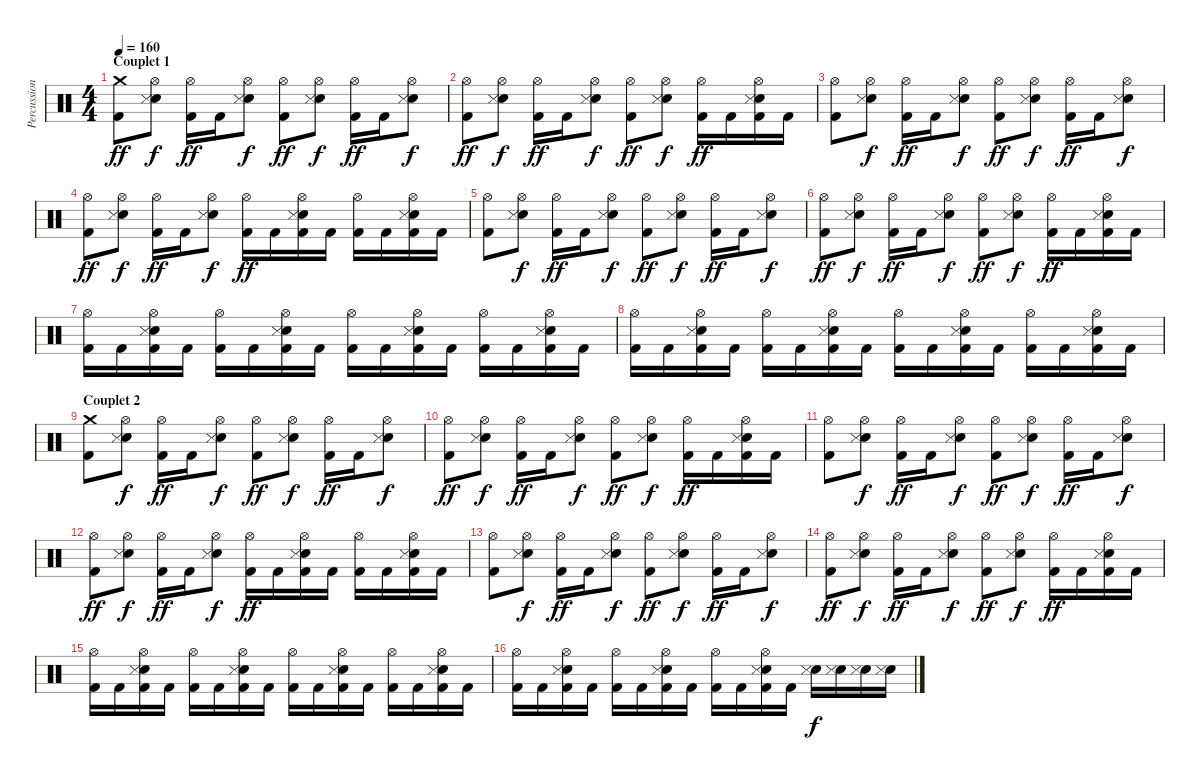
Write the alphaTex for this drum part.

\track ("Percussions" "Percussion") {instrument percussion}
\staff {score}
\articulation defaults
\ts (4 4)
\section ("" "Couplet 1")
\tempo 160
\clef neutral
\ks c
("Crash medium (hit)" "Kick (hit) 2").8{dy ff} ("Hi-Hat (open)" "Electric Snare (hit)" "Snare (side stick) 3").8{dy f} ("Hi-Hat (open)" "Kick (hit) 2").16{dy ff} "Kick (hit) 2".16 ("Hi-Hat (open)" "Electric Snare (hit)" "Snare (side stick) 3").8{dy f} ("Hi-Hat (open)" "Kick (hit) 2").8{dy ff} ("Hi-Hat (open)" "Electric Snare (hit)" "Snare (side stick) 3").8{dy f} ("Hi-Hat (open)" "Kick (hit) 2").16{dy ff} "Kick (hit) 2".16 ("Hi-Hat (open)" "Electric Snare (hit)" "Snare (side stick) 3").8{dy f} |
("Hi-Hat (open)" "Kick (hit) 2").8{dy ff} ("Hi-Hat (open)" "Electric Snare (hit)" "Snare (side stick) 3").8{dy f} ("Hi-Hat (open)" "Kick (hit) 2").16{dy ff} "Kick (hit) 2".16 ("Hi-Hat (open)" "Electric Snare (hit)" "Snare (side stick) 3").8{dy f} ("Hi-Hat (open)" "Kick (hit) 2").8{dy ff} ("Hi-Hat (open)" "Electric Snare (hit)" "Snare (side stick) 3").8{dy f} ("Hi-Hat (open)" "Kick (hit) 2").16{dy ff} "Kick (hit) 2".16 ("Hi-Hat (open)" "Electric Snare (hit)" "Snare (side stick) 3" "Kick (hit) 2").16 "Kick (hit) 2".16 |
("Hi-Hat (open)" "Kick (hit) 2").8 ("Hi-Hat (open)" "Electric Snare (hit)" "Snare (side stick) 3").8{dy f} ("Hi-Hat (open)" "Kick (hit) 2").16{dy ff} "Kick (hit) 2".16 ("Hi-Hat (open)" "Electric Snare (hit)" "Snare (side stick) 3").8{dy f} ("Hi-Hat (open)" "Kick (hit) 2").8{dy ff} ("Hi-Hat (open)" "Electric Snare (hit)" "Snare (side stick) 3").8{dy f} ("Hi-Hat (open)" "Kick (hit) 2").16{dy ff} "Kick (hit) 2".16 ("Hi-Hat (open)" "Electric Snare (hit)" "Snare (side stick) 3").8{dy f} |
("Hi-Hat (open)" "Kick (hit) 2").8{dy ff} ("Hi-Hat (open)" "Electric Snare (hit)" "Snare (side stick) 3").8{dy f} ("Hi-Hat (open)" "Kick (hit) 2").16{dy ff} "Kick (hit) 2".16 ("Hi-Hat (open)" "Electric Snare (hit)" "Snare (side stick) 3").8{dy f} ("Hi-Hat (open)" "Kick (hit) 2").16{dy ff} "Kick (hit) 2".16 ("Hi-Hat (open)" "Electric Snare (hit)" "Snare (side stick) 3" "Kick (hit) 2").16 "Kick (hit) 2".16 ("Hi-Hat (open)" "Kick (hit) 2").16 "Kick (hit) 2".16 ("Hi-Hat (open)" "Electric Snare (hit)" "Snare (side stick) 3" "Kick (hit) 2").16 "Kick (hit) 2".16 |
("Hi-Hat (open)" "Kick (hit) 2").8 ("Hi-Hat (open)" "Electric Snare (hit)" "Snare (side stick) 3").8{dy f} ("Hi-Hat (open)" "Kick (hit) 2").16{dy ff} "Kick (hit) 2".16 ("Hi-Hat (open)" "Electric Snare (hit)" "Snare (side stick) 3").8{dy f} ("Hi-Hat (open)" "Kick (hit) 2").8{dy ff} ("Hi-Hat (open)" "Electric Snare (hit)" "Snare (side stick) 3").8{dy f} ("Hi-Hat (open)" "Kick (hit) 2").16{dy ff} "Kick (hit) 2".16 ("Hi-Hat (open)" "Electric Snare (hit)" "Snare (side stick) 3").8{dy f} |
("Hi-Hat (open)" "Kick (hit) 2").8{dy ff} ("Hi-Hat (open)" "Electric Snare (hit)" "Snare (side stick) 3").8{dy f} ("Hi-Hat (open)" "Kick (hit) 2").16{dy ff} "Kick (hit) 2".16 ("Hi-Hat (open)" "Electric Snare (hit)" "Snare (side stick) 3").8{dy f} ("Hi-Hat (open)" "Kick (hit) 2").8{dy ff} ("Hi-Hat (open)" "Electric Snare (hit)" "Snare (side stick) 3").8{dy f} ("Hi-Hat (open)" "Kick (hit) 2").16{dy ff} "Kick (hit) 2".16 ("Hi-Hat (open)" "Electric Snare (hit)" "Snare (side stick) 3" "Kick (hit) 2").16 "Kick (hit) 2".16 |
("Hi-Hat (open)" "Kick (hit) 2").16 "Kick (hit) 2".16 ("Hi-Hat (open)" "Electric Snare (hit)" "Snare (side stick) 3" "Kick (hit) 2").16 "Kick (hit) 2".16 ("Hi-Hat (open)" "Kick (hit) 2").16 "Kick (hit) 2".16 ("Hi-Hat (open)" "Electric Snare (hit)" "Snare (side stick) 3" "Kick (hit) 2").16 "Kick (hit) 2".16 ("Hi-Hat (open)" "Kick (hit) 2").16 "Kick (hit) 2".16 ("Hi-Hat (open)" "Electric Snare (hit)" "Snare (side stick) 3" "Kick (hit) 2").16 "Kick (hit) 2".16 ("Hi-Hat (open)" "Kick (hit) 2").16 "Kick (hit) 2".16 ("Hi-Hat (open)" "Electric Snare (hit)" "Snare (side stick) 3" "Kick (hit) 2").16 "Kick (hit) 2".16 |
("Hi-Hat (open)" "Kick (hit) 2").16 "Kick (hit) 2".16 ("Hi-Hat (open)" "Electric Snare (hit)" "Snare (side stick) 3" "Kick (hit) 2").16 "Kick (hit) 2".16 ("Hi-Hat (open)" "Kick (hit) 2").16 "Kick (hit) 2".16 ("Hi-Hat (open)" "Electric Snare (hit)" "Snare (side stick) 3" "Kick (hit) 2").16 "Kick (hit) 2".16 ("Hi-Hat (open)" "Kick (hit) 2").16 "Kick (hit) 2".16 ("Hi-Hat (open)" "Electric Snare (hit)" "Snare (side stick) 3" "Kick (hit) 2").16 "Kick (hit) 2".16 ("Hi-Hat (open)" "Kick (hit) 2").16 "Kick (hit) 2".16 ("Hi-Hat (open)" "Electric Snare (hit)" "Snare (side stick) 3" "Kick (hit) 2").16 "Kick (hit) 2".16 |
\section ("" "Couplet 2")
("Crash medium (hit)" "Kick (hit) 2").8 ("Hi-Hat (open)" "Electric Snare (hit)" "Snare (side stick) 3").8{dy f} ("Hi-Hat (open)" "Kick (hit) 2").16{dy ff} "Kick (hit) 2".16 ("Hi-Hat (open)" "Electric Snare (hit)" "Snare (side stick) 3").8{dy f} ("Hi-Hat (open)" "Kick (hit) 2").8{dy ff} ("Hi-Hat (open)" "Electric Snare (hit)" "Snare (side stick) 3").8{dy f} ("Hi-Hat (open)" "Kick (hit) 2").16{dy ff} "Kick (hit) 2".16 ("Hi-Hat (open)" "Electric Snare (hit)" "Snare (side stick) 3").8{dy f} |
("Hi-Hat (open)" "Kick (hit) 2").8{dy ff} ("Hi-Hat (open)" "Electric Snare (hit)" "Snare (side stick) 3").8{dy f} ("Hi-Hat (open)" "Kick (hit) 2").16{dy ff} "Kick (hit) 2".16 ("Hi-Hat (open)" "Electric Snare (hit)" "Snare (side stick) 3").8{dy f} ("Hi-Hat (open)" "Kick (hit) 2").8{dy ff} ("Hi-Hat (open)" "Electric Snare (hit)" "Snare (side stick) 3").8{dy f} ("Hi-Hat (open)" "Kick (hit) 2").16{dy ff} "Kick (hit) 2".16 ("Hi-Hat (open)" "Electric Snare (hit)" "Snare (side stick) 3" "Kick (hit) 2").16 "Kick (hit) 2".16 |
("Hi-Hat (open)" "Kick (hit) 2").8 ("Hi-Hat (open)" "Electric Snare (hit)" "Snare (side stick) 3").8{dy f} ("Hi-Hat (open)" "Kick (hit) 2").16{dy ff} "Kick (hit) 2".16 ("Hi-Hat (open)" "Electric Snare (hit)" "Snare (side stick) 3").8{dy f} ("Hi-Hat (open)" "Kick (hit) 2").8{dy ff} ("Hi-Hat (open)" "Electric Snare (hit)" "Snare (side stick) 3").8{dy f} ("Hi-Hat (open)" "Kick (hit) 2").16{dy ff} "Kick (hit) 2".16 ("Hi-Hat (open)" "Electric Snare (hit)" "Snare (side stick) 3").8{dy f} |
("Hi-Hat (open)" "Kick (hit) 2").8{dy ff} ("Hi-Hat (open)" "Electric Snare (hit)" "Snare (side stick) 3").8{dy f} ("Hi-Hat (open)" "Kick (hit) 2").16{dy ff} "Kick (hit) 2".16 ("Hi-Hat (open)" "Electric Snare (hit)" "Snare (side stick) 3").8{dy f} ("Hi-Hat (open)" "Kick (hit) 2").16{dy ff} "Kick (hit) 2".16 ("Hi-Hat (open)" "Electric Snare (hit)" "Snare (side stick) 3" "Kick (hit) 2").16 "Kick (hit) 2".16 ("Hi-Hat (open)" "Kick (hit) 2").16 "Kick (hit) 2".16 ("Hi-Hat (open)" "Electric Snare (hit)" "Snare (side stick) 3" "Kick (hit) 2").16 "Kick (hit) 2".16 |
("Hi-Hat (open)" "Kick (hit) 2").8 ("Hi-Hat (open)" "Electric Snare (hit)" "Snare (side stick) 3").8{dy f} ("Hi-Hat (open)" "Kick (hit) 2").16{dy ff} "Kick (hit) 2".16 ("Hi-Hat (open)" "Electric Snare (hit)" "Snare (side stick) 3").8{dy f} ("Hi-Hat (open)" "Kick (hit) 2").8{dy ff} ("Hi-Hat (open)" "Electric Snare (hit)" "Snare (side stick) 3").8{dy f} ("Hi-Hat (open)" "Kick (hit) 2").16{dy ff} "Kick (hit) 2".16 ("Hi-Hat (open)" "Electric Snare (hit)" "Snare (side stick) 3").8{dy f} |
("Hi-Hat (open)" "Kick (hit) 2").8{dy ff} ("Hi-Hat (open)" "Electric Snare (hit)" "Snare (side stick) 3").8{dy f} ("Hi-Hat (open)" "Kick (hit) 2").16{dy ff} "Kick (hit) 2".16 ("Hi-Hat (open)" "Electric Snare (hit)" "Snare (side stick) 3").8{dy f} ("Hi-Hat (open)" "Kick (hit) 2").8{dy ff} ("Hi-Hat (open)" "Electric Snare (hit)" "Snare (side stick) 3").8{dy f} ("Hi-Hat (open)" "Kick (hit) 2").16{dy ff} "Kick (hit) 2".16 ("Hi-Hat (open)" "Electric Snare (hit)" "Snare (side stick) 3" "Kick (hit) 2").16 "Kick (hit) 2".16 |
("Hi-Hat (open)" "Kick (hit) 2").16 "Kick (hit) 2".16 ("Hi-Hat (open)" "Electric Snare (hit)" "Snare (side stick) 3" "Kick (hit) 2").16 "Kick (hit) 2".16 ("Hi-Hat (open)" "Kick (hit) 2").16 "Kick (hit) 2".16 ("Hi-Hat (open)" "Electric Snare (hit)" "Snare (side stick) 3" "Kick (hit) 2").16 "Kick (hit) 2".16 ("Hi-Hat (open)" "Kick (hit) 2").16 "Kick (hit) 2".16 ("Hi-Hat (open)" "Electric Snare (hit)" "Snare (side stick) 3" "Kick (hit) 2").16 "Kick (hit) 2".16 ("Hi-Hat (open)" "Kick (hit) 2").16 "Kick (hit) 2".16 ("Hi-Hat (open)" "Electric Snare (hit)" "Snare (side stick) 3" "Kick (hit) 2").16 "Kick (hit) 2".16 |
("Hi-Hat (open)" "Kick (hit) 2").16 "Kick (hit) 2".16 ("Hi-Hat (open)" "Electric Snare (hit)" "Snare (side stick) 3" "Kick (hit) 2").16 "Kick (hit) 2".16 ("Hi-Hat (open)" "Kick (hit) 2").16 "Kick (hit) 2".16 ("Hi-Hat (open)" "Electric Snare (hit)" "Snare (side stick) 3" "Kick (hit) 2").16 "Kick (hit) 2".16 ("Hi-Hat (open)" "Kick (hit) 2").16 "Kick (hit) 2".16 ("Hi-Hat (open)" "Electric Snare (hit)" "Snare (side stick) 3" "Kick (hit) 2").16 "Kick (hit) 2".16 ("Electric Snare (hit)" "Snare (side stick) 3").16{dy f} ("Electric Snare (hit)" "Snare (side stick) 3").16 ("Electric Snare (hit)" "Snare (side stick) 3").16 ("Electric Snare (hit)" "Snare (side stick) 3").16
